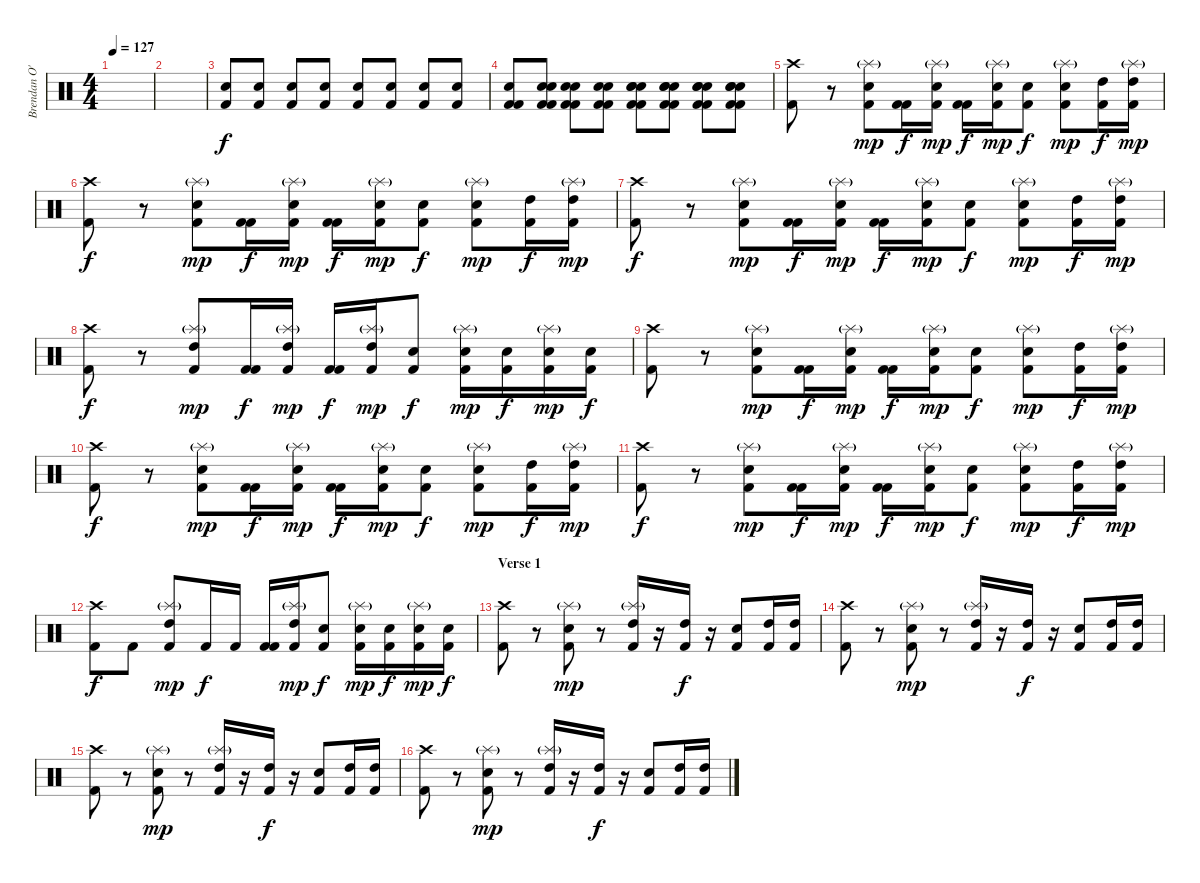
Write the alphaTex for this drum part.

\track ("Brendan O'Neil" "Brendan O'") {instrument percussion}
\staff {score}
\articulation defaults
\ts (4 4)
\tempo 127
\clef neutral
\ks c
|
|
("Snare (hit) 2" "Kick (hit) 2").8{volume 5} ("Snare (hit) 2" "Kick (hit) 2").8 ("Snare (hit) 2" "Kick (hit) 2").8{volume 8} ("Snare (hit) 2" "Kick (hit) 2").8 ("Snare (hit) 2" "Kick (hit) 2").8{volume 8} ("Snare (hit) 2" "Kick (hit) 2").8 ("Snare (hit) 2" "Kick (hit) 2").8{volume 9} ("Snare (hit) 2" "Kick (hit) 2").8 |
("Snare (hit) 2" "Kick (hit) 2" "Kick (hit) 2").8{volume 10} ("Electric Snare (hit)" "Snare (hit) 2" "Kick (hit) 2" "Kick (hit) 2").8 ("Electric Snare (hit)" "Snare (hit) 2" "Kick (hit) 2" "Kick (hit) 2").8 ("Electric Snare (hit)" "Snare (hit) 2" "Kick (hit) 2" "Kick (hit) 2").8{volume 11} ("Electric Snare (hit)" "Electric Snare (hit)" "Snare (hit) 2" "Kick (hit) 2" "Kick (hit) 2").8 ("Electric Snare (hit)" "Electric Snare (hit)" "Snare (hit) 2" "Kick (hit) 2" "Kick (hit) 2").8 ("Electric Snare (hit)" "Electric Snare (hit)" "Snare (hit) 2" "Kick (hit) 2" "Kick (hit) 2").8{volume 13} ("Electric Snare (hit)" "Electric Snare (hit)" "Snare (hit) 2" "Kick (hit) 2" "Kick (hit) 2").8 |
("Crash high (hit)" "Kick (hit) 2").8 r.8 ("Splash (hit)"{g} "Snare (hit) 2" "Kick (hit) 2").8{dy mp} ("Kick (hit) 2" "Kick (hit) 2").16{dy f} ("Splash (hit)"{g} "Snare (hit) 2" "Kick (hit) 2").16{dy mp} ("Kick (hit) 2" "Kick (hit) 2").16{dy f} ("Splash (hit)"{g} "Snare (hit) 2" "Kick (hit) 2").16{dy mp} ("Snare (hit) 2" "Kick (hit) 2").8{dy f} ("Splash (hit)"{g} "Snare (hit) 2" "Kick (hit) 2").8{dy mp} ("High Tom (hit)" "Kick (hit) 2").16{dy f} ("Splash (hit)"{g} "High Tom (hit)" "Kick (hit) 2").16{dy mp} |
("Crash high (hit)" "Kick (hit) 2").8{dy f} r.8 ("Splash (hit)"{g} "Snare (hit) 2" "Kick (hit) 2").8{dy mp} ("Kick (hit) 2" "Kick (hit) 2").16{dy f} ("Splash (hit)"{g} "Snare (hit) 2" "Kick (hit) 2").16{dy mp} ("Kick (hit) 2" "Kick (hit) 2").16{dy f} ("Splash (hit)"{g} "Snare (hit) 2" "Kick (hit) 2").16{dy mp} ("Snare (hit) 2" "Kick (hit) 2").8{dy f} ("Splash (hit)"{g} "Snare (hit) 2" "Kick (hit) 2").8{dy mp} ("High Tom (hit)" "Kick (hit) 2").16{dy f} ("Splash (hit)"{g} "High Tom (hit)" "Kick (hit) 2").16{dy mp} |
("Crash high (hit)" "Kick (hit) 2").8{dy f} r.8 ("Splash (hit)"{g} "Snare (hit) 2" "Kick (hit) 2").8{dy mp} ("Kick (hit) 2" "Kick (hit) 2").16{dy f} ("Splash (hit)"{g} "Snare (hit) 2" "Kick (hit) 2").16{dy mp} ("Kick (hit) 2" "Kick (hit) 2").16{dy f} ("Splash (hit)"{g} "Snare (hit) 2" "Kick (hit) 2").16{dy mp} ("Snare (hit) 2" "Kick (hit) 2").8{dy f} ("Splash (hit)"{g} "Snare (hit) 2" "Kick (hit) 2").8{dy mp} ("High Tom (hit)" "Kick (hit) 2").16{dy f} ("Splash (hit)"{g} "High Tom (hit)" "Kick (hit) 2").16{dy mp} |
("Crash high (hit)" "Kick (hit) 2").8{dy f} r.8 ("Splash (hit)"{g} "High Tom (hit)" "Kick (hit) 2").8{dy mp} ("Kick (hit) 2" "Kick (hit) 2").16{dy f} ("Splash (hit)"{g} "High Tom (hit)" "Kick (hit) 2").16{dy mp} ("Kick (hit) 2" "Kick (hit) 2").16{dy f} ("Splash (hit)"{g} "High Tom (hit)" "Kick (hit) 2").16{dy mp} ("Snare (hit) 2" "Kick (hit) 2").8{dy f} ("Splash (hit)"{g} "Snare (hit) 2" "Kick (hit) 2").16{dy mp} ("Snare (hit) 2" "Kick (hit) 2").16{dy f} ("Splash (hit)"{g} "Snare (hit) 2" "Kick (hit) 2").16{dy mp} ("Snare (hit) 2" "Kick (hit) 2").16{dy f} |
("Crash high (hit)" "Kick (hit) 2").8 r.8 ("Splash (hit)"{g} "Snare (hit) 2" "Kick (hit) 2").8{dy mp} ("Kick (hit) 2" "Kick (hit) 2").16{dy f} ("Splash (hit)"{g} "Snare (hit) 2" "Kick (hit) 2").16{dy mp} ("Kick (hit) 2" "Kick (hit) 2").16{dy f} ("Splash (hit)"{g} "Snare (hit) 2" "Kick (hit) 2").16{dy mp} ("Snare (hit) 2" "Kick (hit) 2").8{dy f} ("Splash (hit)"{g} "Snare (hit) 2" "Kick (hit) 2").8{dy mp} ("High Tom (hit)" "Kick (hit) 2").16{dy f} ("Splash (hit)"{g} "High Tom (hit)" "Kick (hit) 2").16{dy mp} |
("Crash high (hit)" "Kick (hit) 2").8{dy f} r.8 ("Splash (hit)"{g} "Snare (hit) 2" "Kick (hit) 2").8{dy mp} ("Kick (hit) 2" "Kick (hit) 2").16{dy f} ("Splash (hit)"{g} "Snare (hit) 2" "Kick (hit) 2").16{dy mp} ("Kick (hit) 2" "Kick (hit) 2").16{dy f} ("Splash (hit)"{g} "Snare (hit) 2" "Kick (hit) 2").16{dy mp} ("Snare (hit) 2" "Kick (hit) 2").8{dy f} ("Splash (hit)"{g} "Snare (hit) 2" "Kick (hit) 2").8{dy mp} ("High Tom (hit)" "Kick (hit) 2").16{dy f} ("Splash (hit)"{g} "High Tom (hit)" "Kick (hit) 2").16{dy mp} |
("Crash high (hit)" "Kick (hit) 2").8{dy f} r.8 ("Splash (hit)"{g} "Snare (hit) 2" "Kick (hit) 2").8{dy mp} ("Kick (hit) 2" "Kick (hit) 2").16{dy f} ("Splash (hit)"{g} "Snare (hit) 2" "Kick (hit) 2").16{dy mp} ("Kick (hit) 2" "Kick (hit) 2").16{dy f} ("Splash (hit)"{g} "Snare (hit) 2" "Kick (hit) 2").16{dy mp} ("Snare (hit) 2" "Kick (hit) 2").8{dy f} ("Splash (hit)"{g} "Snare (hit) 2" "Kick (hit) 2").8{dy mp} ("High Tom (hit)" "Kick (hit) 2").16{dy f} ("Splash (hit)"{g} "High Tom (hit)" "Kick (hit) 2").16{dy mp} |
("Crash high (hit)" "Kick (hit) 2").8{dy f} "Kick (hit) 2".8 ("Splash (hit)"{g} "High Tom (hit)" "Kick (hit) 2").8{dy mp} "Kick (hit) 2".16{dy f} "Kick (hit) 2".16 ("Kick (hit) 2" "Kick (hit) 2").16 ("Splash (hit)"{g} "High Tom (hit)" "Kick (hit) 2").16{dy mp} ("Snare (hit) 2" "Kick (hit) 2").8{dy f} ("Splash (hit)"{g} "Snare (hit) 2" "Kick (hit) 2").16{dy mp} ("Snare (hit) 2" "Kick (hit) 2").16{dy f} ("Splash (hit)"{g} "Snare (hit) 2" "Kick (hit) 2").16{dy mp} ("Snare (hit) 2" "Kick (hit) 2").16{dy f} |
\section ("" "Verse 1")
("Crash high (hit)" "Kick (hit) 2").8 r.8 ("Splash (hit)"{g} "Snare (hit) 2" "Kick (hit) 2").8{dy mp} r.8 ("Splash (hit)"{g} "High Tom (hit)" "Kick (hit) 2").16 r.16 ("High Tom (hit)" "Kick (hit) 2").16{dy f} r.16 ("Snare (hit) 2" "Kick (hit) 2").8 ("High Tom (hit)" "Kick (hit) 2").16 ("High Tom (hit)" "Kick (hit) 2").16 |
("Crash high (hit)" "Kick (hit) 2").8 r.8 ("Splash (hit)"{g} "Snare (hit) 2" "Kick (hit) 2").8{dy mp} r.8 ("Splash (hit)"{g} "High Tom (hit)" "Kick (hit) 2").16 r.16 ("High Tom (hit)" "Kick (hit) 2").16{dy f} r.16 ("Snare (hit) 2" "Kick (hit) 2").8 ("High Tom (hit)" "Kick (hit) 2").16 ("High Tom (hit)" "Kick (hit) 2").16 |
("Crash high (hit)" "Kick (hit) 2").8 r.8 ("Splash (hit)"{g} "Snare (hit) 2" "Kick (hit) 2").8{dy mp} r.8 ("Splash (hit)"{g} "High Tom (hit)" "Kick (hit) 2").16 r.16 ("High Tom (hit)" "Kick (hit) 2").16{dy f} r.16 ("Snare (hit) 2" "Kick (hit) 2").8 ("High Tom (hit)" "Kick (hit) 2").16 ("High Tom (hit)" "Kick (hit) 2").16 |
("Crash high (hit)" "Kick (hit) 2").8 r.8 ("Splash (hit)"{g} "Snare (hit) 2" "Kick (hit) 2").8{dy mp} r.8 ("Splash (hit)"{g} "High Tom (hit)" "Kick (hit) 2").16 r.16 ("High Tom (hit)" "Kick (hit) 2").16{dy f} r.16 ("Snare (hit) 2" "Kick (hit) 2").8 ("High Tom (hit)" "Kick (hit) 2").16 ("High Tom (hit)" "Kick (hit) 2").16
